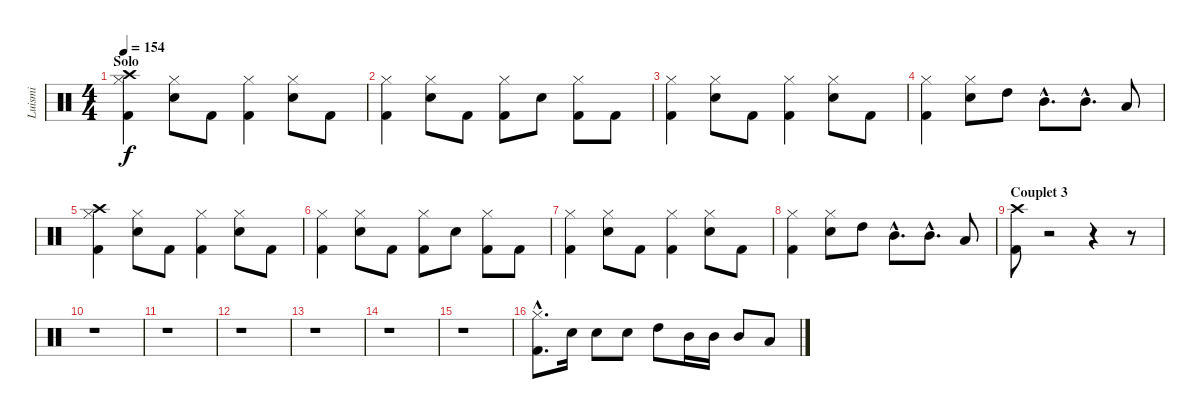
\track ("Luismi" "Luismi") {instrument percussion}
\staff {score}
\articulation defaults
\ts (4 4)
\section ("" "Solo")
\tempo 154
\clef neutral
\ks c
("Kick (hit) 2" "Hi-Hat (closed)" "Crash high (hit)").4{dy f} ("Snare (hit) 2" "Hi-Hat (closed)").8 "Kick (hit) 2".8 ("Kick (hit) 2" "Hi-Hat (closed)").4 ("Snare (hit) 2" "Hi-Hat (closed)").8 "Kick (hit) 2".8 |
("Kick (hit) 2" "Hi-Hat (closed)").4 ("Snare (hit) 2" "Hi-Hat (closed)").8 "Kick (hit) 2".8 ("Kick (hit) 2" "Hi-Hat (closed)").8 "Snare (hit) 2".8 ("Kick (hit) 2" "Hi-Hat (closed)").8 "Kick (hit) 2".8 |
("Kick (hit) 2" "Hi-Hat (closed)").4 ("Snare (hit) 2" "Hi-Hat (closed)").8 "Kick (hit) 2".8 ("Kick (hit) 2" "Hi-Hat (closed)").4 ("Snare (hit) 2" "Hi-Hat (closed)").8 "Kick (hit) 2".8 |
("Kick (hit) 2" "Hi-Hat (closed)").4 ("Snare (hit) 2" "Hi-Hat (closed)").8 "High Tom (hit)".8 "Mid Tom (hit)"{hac}.8{d} "Mid Tom (hit)"{hac}.8{d} "Low Tom (hit)".8 |
("Kick (hit) 2" "Hi-Hat (closed)" "Crash high (hit)").4 ("Snare (hit) 2" "Hi-Hat (closed)").8 "Kick (hit) 2".8 ("Kick (hit) 2" "Hi-Hat (closed)").4 ("Snare (hit) 2" "Hi-Hat (closed)").8 "Kick (hit) 2".8 |
("Kick (hit) 2" "Hi-Hat (closed)").4 ("Snare (hit) 2" "Hi-Hat (closed)").8 "Kick (hit) 2".8 ("Kick (hit) 2" "Hi-Hat (closed)").8 "Snare (hit) 2".8 ("Kick (hit) 2" "Hi-Hat (closed)").8 "Kick (hit) 2".8 |
("Kick (hit) 2" "Hi-Hat (closed)").4 ("Snare (hit) 2" "Hi-Hat (closed)").8 "Kick (hit) 2".8 ("Kick (hit) 2" "Hi-Hat (closed)").4 ("Snare (hit) 2" "Hi-Hat (closed)").8 "Kick (hit) 2".8 |
("Kick (hit) 2" "Hi-Hat (closed)").4 ("Snare (hit) 2" "Hi-Hat (closed)").8 "High Tom (hit)".8 "Mid Tom (hit)"{hac}.8{d} "Mid Tom (hit)"{hac}.8{d} "Low Tom (hit)".8 |
\section ("" "Couplet 3")
("Kick (hit) 2" "Crash high (hit)").8 r.2 r.4 r.8 |
r.1 |
r.1 |
r.1 |
r.1 |
r.1 |
r.1 |
("Kick (hit) 2"{hac} "Hi-Hat (closed)"{hac}).8{d} "Snare (hit) 2".16 "Snare (hit) 2".8 "Snare (hit) 2".8 "High Tom (hit)".8 "Mid Tom (hit)".16 "Mid Tom (hit)".16 "Mid Tom (hit)".8 "Low Tom (hit)".8
